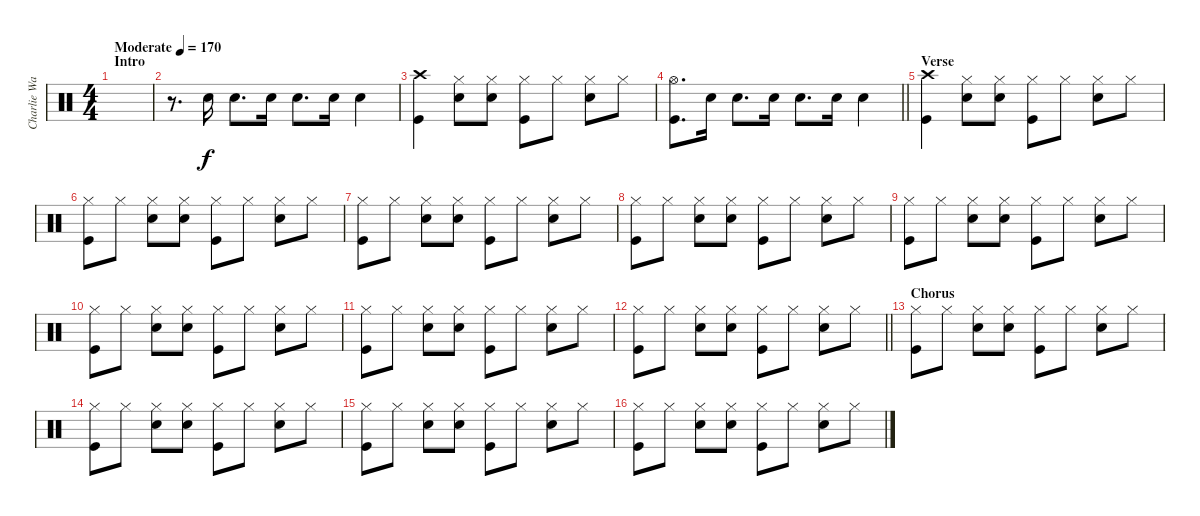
\track ("Charlie Watts" "Charlie Wa") {instrument percussion}
\staff {score}
\articulation defaults
\ts (4 4)
\section ("" "Intro")
\tempo (170 "Moderate")
\clef neutral
\ks c
|
r.8{d} "Snare (hit) 2".16 "Snare (hit) 2".8{d} "Snare (hit) 2".16 "Snare (hit) 2".8{d} "Snare (hit) 2".16 "Snare (hit) 2".4 |
("Crash high (hit)" "Kick (hit)").4 ("Hi-Hat (closed)" "Snare (hit) 2").8 ("Hi-Hat (closed)" "Snare (hit) 2").8 ("Hi-Hat (closed)" "Kick (hit)").8 "Hi-Hat (closed)".8 ("Hi-Hat (closed)" "Snare (hit) 2").8 "Hi-Hat (closed)".8 |
\barLineRight lightlight
("Hi-Hat (open)" "Kick (hit)").8{d} "Snare (hit) 2".16 "Snare (hit) 2".8{d} "Snare (hit) 2".16 "Snare (hit) 2".8{d} "Snare (hit) 2".16 "Snare (hit) 2".4 |
\section ("" "Verse")
("Crash high (hit)" "Kick (hit)").4 ("Hi-Hat (closed)" "Snare (hit) 2").8 ("Hi-Hat (closed)" "Snare (hit) 2").8 ("Hi-Hat (closed)" "Kick (hit)").8 "Hi-Hat (closed)".8 ("Hi-Hat (closed)" "Snare (hit) 2").8 "Hi-Hat (closed)".8 |
("Hi-Hat (closed)" "Kick (hit)").8 "Hi-Hat (closed)".8 ("Hi-Hat (closed)" "Snare (hit) 2").8 ("Hi-Hat (closed)" "Snare (hit) 2").8 ("Hi-Hat (closed)" "Kick (hit)").8 "Hi-Hat (closed)".8 ("Hi-Hat (closed)" "Snare (hit) 2").8 "Hi-Hat (closed)".8 |
("Hi-Hat (closed)" "Kick (hit)").8 "Hi-Hat (closed)".8 ("Hi-Hat (closed)" "Snare (hit) 2").8 ("Hi-Hat (closed)" "Snare (hit) 2").8 ("Hi-Hat (closed)" "Kick (hit)").8 "Hi-Hat (closed)".8 ("Hi-Hat (closed)" "Snare (hit) 2").8 "Hi-Hat (closed)".8 |
("Hi-Hat (closed)" "Kick (hit)").8 "Hi-Hat (closed)".8 ("Hi-Hat (closed)" "Snare (hit) 2").8 ("Hi-Hat (closed)" "Snare (hit) 2").8 ("Hi-Hat (closed)" "Kick (hit)").8 "Hi-Hat (closed)".8 ("Hi-Hat (closed)" "Snare (hit) 2").8 "Hi-Hat (closed)".8 |
("Hi-Hat (closed)" "Kick (hit)").8 "Hi-Hat (closed)".8 ("Hi-Hat (closed)" "Snare (hit) 2").8 ("Hi-Hat (closed)" "Snare (hit) 2").8 ("Hi-Hat (closed)" "Kick (hit)").8 "Hi-Hat (closed)".8 ("Hi-Hat (closed)" "Snare (hit) 2").8 "Hi-Hat (closed)".8 |
("Hi-Hat (closed)" "Kick (hit)").8 "Hi-Hat (closed)".8 ("Hi-Hat (closed)" "Snare (hit) 2").8 ("Hi-Hat (closed)" "Snare (hit) 2").8 ("Hi-Hat (closed)" "Kick (hit)").8 "Hi-Hat (closed)".8 ("Hi-Hat (closed)" "Snare (hit) 2").8 "Hi-Hat (closed)".8 |
("Hi-Hat (closed)" "Kick (hit)").8 "Hi-Hat (closed)".8 ("Hi-Hat (closed)" "Snare (hit) 2").8 ("Hi-Hat (closed)" "Snare (hit) 2").8 ("Hi-Hat (closed)" "Kick (hit)").8 "Hi-Hat (closed)".8 ("Hi-Hat (closed)" "Snare (hit) 2").8 "Hi-Hat (closed)".8 |
\barLineRight lightlight
("Hi-Hat (closed)" "Kick (hit)").8 "Hi-Hat (closed)".8 ("Hi-Hat (closed)" "Snare (hit) 2").8 ("Hi-Hat (closed)" "Snare (hit) 2").8 ("Hi-Hat (closed)" "Kick (hit)").8 "Hi-Hat (closed)".8 ("Hi-Hat (closed)" "Snare (hit) 2").8 "Hi-Hat (closed)".8 |
\section ("" "Chorus")
("Hi-Hat (closed)" "Kick (hit)").8 "Hi-Hat (closed)".8 ("Hi-Hat (closed)" "Snare (hit) 2").8 ("Hi-Hat (closed)" "Snare (hit) 2").8 ("Hi-Hat (closed)" "Kick (hit)").8 "Hi-Hat (closed)".8 ("Hi-Hat (closed)" "Snare (hit) 2").8 "Hi-Hat (closed)".8 |
("Hi-Hat (closed)" "Kick (hit)").8 "Hi-Hat (closed)".8 ("Hi-Hat (closed)" "Snare (hit) 2").8 ("Hi-Hat (closed)" "Snare (hit) 2").8 ("Hi-Hat (closed)" "Kick (hit)").8 "Hi-Hat (closed)".8 ("Hi-Hat (closed)" "Snare (hit) 2").8 "Hi-Hat (closed)".8 |
("Hi-Hat (closed)" "Kick (hit)").8 "Hi-Hat (closed)".8 ("Hi-Hat (closed)" "Snare (hit) 2").8 ("Hi-Hat (closed)" "Snare (hit) 2").8 ("Hi-Hat (closed)" "Kick (hit)").8 "Hi-Hat (closed)".8 ("Hi-Hat (closed)" "Snare (hit) 2").8 "Hi-Hat (closed)".8 |
("Hi-Hat (closed)" "Kick (hit)").8 "Hi-Hat (closed)".8 ("Hi-Hat (closed)" "Snare (hit) 2").8 ("Hi-Hat (closed)" "Snare (hit) 2").8 ("Hi-Hat (closed)" "Kick (hit)").8 "Hi-Hat (closed)".8 ("Hi-Hat (closed)" "Snare (hit) 2").8 "Hi-Hat (closed)".8
